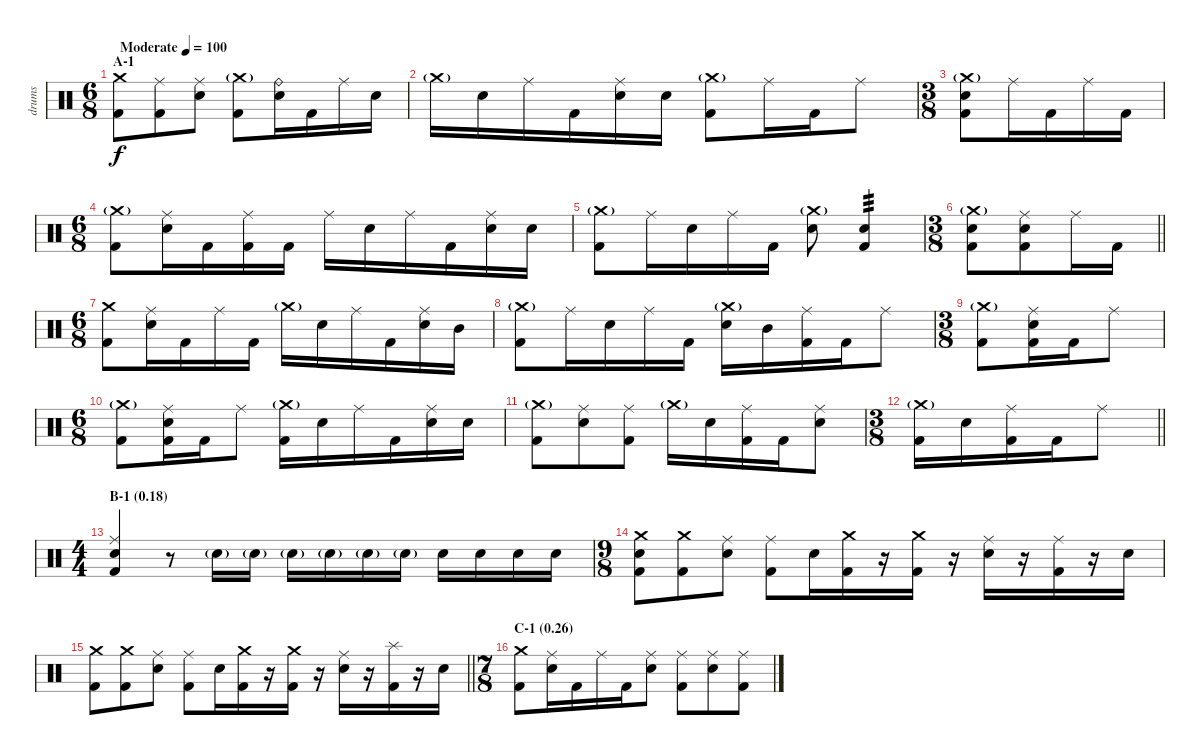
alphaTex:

\track ("drums" "drums") {instrument percussion}
\staff {score}
\articulation defaults
\ts (6 8)
\section ("" "A-1")
\tempo (100 "Moderate")
\clef neutral
\ks c
("Crash medium (hit)" "Kick (hit) 2").8{dy f} ("Ride (middle)" "Kick (hit) 2").8 ("Ride (middle)" "Electric Snare (hit)").8 ("Crash medium (hit)"{g} "Kick (hit) 2").8 ("Ride (bell)" "Electric Snare (hit)").16 "Kick (hit) 2".16 "Ride (middle)".16 "Electric Snare (hit)".16 |
"Crash medium (hit)"{g}.16 "Electric Snare (hit)".16 "Ride (middle)".16 "Kick (hit) 2".16 ("Ride (middle)" "Electric Snare (hit)").16 "Electric Snare (hit)".16 ("Crash medium (hit)"{g} "Kick (hit) 2").8 "Ride (middle)".16 "Kick (hit) 2".16 "Ride (middle)".8 |
\ts (3 8)
("Crash medium (hit)"{g} "Electric Snare (hit)" "Kick (hit) 2").8 "Ride (middle)".16 "Kick (hit) 2".16 "Ride (middle)".16 "Kick (hit) 2".16 |
\ts (6 8)
("Crash medium (hit)"{g} "Kick (hit) 2").8 ("Ride (middle)" "Electric Snare (hit)").16 "Kick (hit) 2".16 ("Ride (middle)" "Kick (hit) 2").16 "Kick (hit) 2".16 "Ride (middle)".16 "Electric Snare (hit)".16 "Ride (middle)".16 "Kick (hit) 2".16 ("Ride (middle)" "Electric Snare (hit)").16 "Electric Snare (hit)".16 |
("Crash medium (hit)"{g} "Kick (hit) 2").8 "Ride (middle)".16 "Electric Snare (hit)".16 "Ride (middle)".16 "Kick (hit) 2".16 ("Crash medium (hit)"{g} "Electric Snare (hit)").8 ("Electric Snare (hit)" "Kick (hit) 2").4{tp 3} |
\ts (3 8)
\barLineRight lightlight
("Crash medium (hit)"{g} "Electric Snare (hit)" "Kick (hit) 2").8 ("Ride (middle)" "Electric Snare (hit)" "Kick (hit) 2").8 "Ride (middle)".16 "Kick (hit) 2".16 |
\ts (6 8)
("Crash medium (hit)" "Kick (hit) 2").8 ("Ride (middle)" "Electric Snare (hit)").16 "Kick (hit) 2".16 "Ride (middle)".16 "Kick (hit) 2".16 "Crash medium (hit)"{g}.16 "Electric Snare (hit)".16 "Ride (middle)".16 "Kick (hit) 2".16 ("Ride (middle)" "Electric Snare (hit)").16 "Mid Tom (hit)".16 |
("Crash medium (hit)"{g} "Kick (hit) 2").8 "Ride (middle)".16 "Electric Snare (hit)".16 "Ride (middle)".16 "Kick (hit) 2".16 ("Crash medium (hit)"{g} "Electric Snare (hit)").16 "Mid Tom (hit)".16 ("Ride (middle)" "Kick (hit) 2").16 "Kick (hit) 2".16 "Ride (middle)".8 |
\ts (3 8)
("Crash medium (hit)"{g} "Kick (hit) 2").8 ("Ride (middle)" "Electric Snare (hit)" "Kick (hit) 2").16 "Kick (hit) 2".16 "Ride (middle)".8 |
\ts (6 8)
("Crash medium (hit)"{g} "Kick (hit) 2").8 ("Ride (middle)" "Electric Snare (hit)" "Kick (hit) 2").16 "Kick (hit) 2".16 "Ride (middle)".8 ("Crash medium (hit)"{g} "Kick (hit) 2").16 "Electric Snare (hit)".16 "Ride (middle)".16 "Kick (hit) 2".16 ("Ride (middle)" "Electric Snare (hit)").16 "Electric Snare (hit)".16 |
("Crash medium (hit)"{g} "Kick (hit) 2").8 ("Ride (middle)" "Electric Snare (hit)").8 ("Ride (middle)" "Kick (hit) 2").8 "Crash medium (hit)"{g}.16 "Electric Snare (hit)".16 ("Ride (middle)" "Kick (hit) 2").16 "Kick (hit) 2".16 ("Ride (middle)" "Electric Snare (hit)").8 |
\ts (3 8)
\barLineRight lightlight
("Crash medium (hit)"{g} "Kick (hit) 2").16 "Electric Snare (hit)".16 ("Ride (middle)" "Kick (hit) 2").16 "Kick (hit) 2".16 "Ride (middle)".8 |
\ts (4 4)
\section ("" "B-1 (0.18)")
("Ride (middle)" "Electric Snare (hit)" "Kick (hit) 2").4 r.8 "Electric Snare (hit)"{g}.16 "Electric Snare (hit)"{g}.16 "Electric Snare (hit)"{g}.16 "Electric Snare (hit)"{g}.16 "Electric Snare (hit)"{g}.16 "Electric Snare (hit)"{g}.16 "Electric Snare (hit)".16 "Electric Snare (hit)".16 "Electric Snare (hit)".16 "Electric Snare (hit)".16 |
\ts (9 8)
("Crash medium (hit)" "Electric Snare (hit)" "Kick (hit) 2").8 ("Crash medium (hit)" "Kick (hit) 2").8 ("Ride (middle)" "Electric Snare (hit)").8 ("Ride (middle)" "Kick (hit) 2").8 "Electric Snare (hit)".16 ("Crash medium (hit)" "Kick (hit) 2").16 r.16 ("Crash medium (hit)" "Kick (hit) 2").16 r.16 ("Ride (middle)" "Electric Snare (hit)").16 r.16 ("Ride (middle)" "Kick (hit) 2").16 r.16 "Electric Snare (hit)".16 |
\barLineRight lightlight
("Crash medium (hit)" "Kick (hit) 2").8 ("Crash medium (hit)" "Kick (hit) 2").8 ("Ride (middle)" "Electric Snare (hit)").8 ("Ride (middle)" "Kick (hit) 2").8 "Electric Snare (hit)".16 ("Crash medium (hit)" "Kick (hit) 2").16 r.16 ("Crash medium (hit)" "Kick (hit) 2").16 r.16 ("Ride (middle)" "Electric Snare (hit)").16 r.16 ("Splash (hit)" "Kick (hit) 2").16 r.16 "Electric Snare (hit)".16 |
\ts (7 8)
\section ("" "C-1 (0.26)")
("Crash medium (hit)" "Kick (hit) 2").8 ("Ride (middle)" "Electric Snare (hit)").16 "Kick (hit) 2".16 "Ride (middle)".16 "Kick (hit) 2".16 ("Ride (middle)" "Electric Snare (hit)").8 ("Ride (middle)" "Kick (hit) 2").8 ("Ride (middle)" "Electric Snare (hit)").8 ("Ride (middle)" "Kick (hit) 2").8
